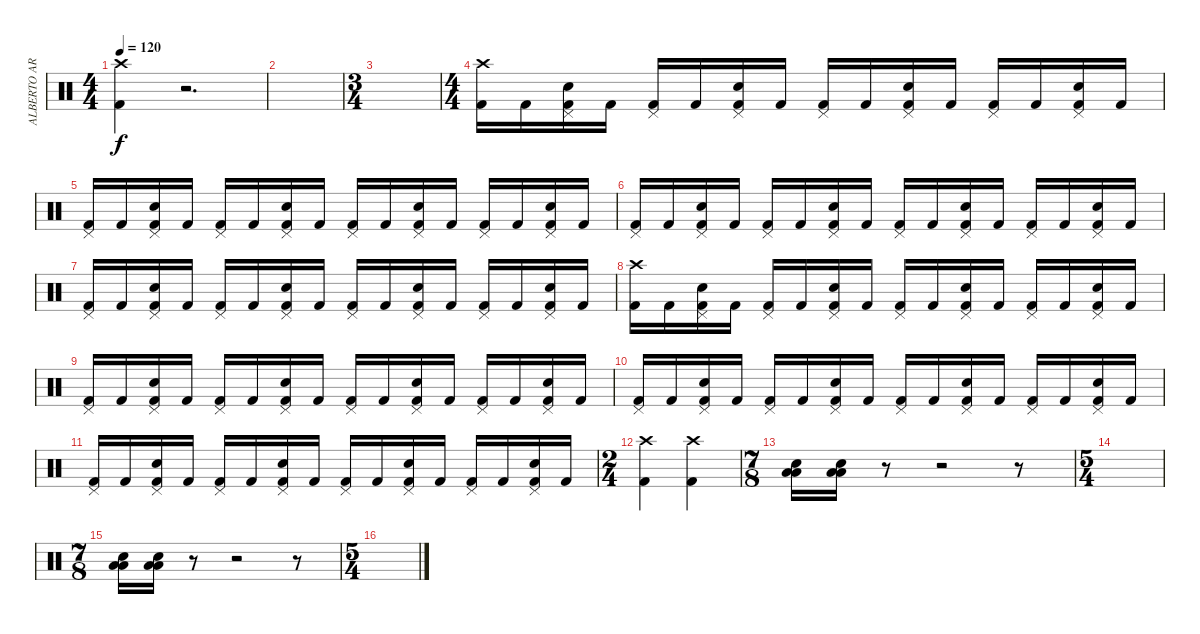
\track ("ALBERTO ARDINES" "ALBERTO AR") {instrument percussion}
\staff {score}
\articulation defaults
\ts (4 4)
\tempo 120
\clef neutral
\ks c
("Crash high (hit)" "Kick (hit) 2").4{dy f} r.2{d} |
|
\ts (3 4)
|
\ts (4 4)
("Crash high (hit)" "Kick (hit) 2").16 "Kick (hit) 2".16 ("Pedal Hi-Hat (hit)" "Electric Snare (hit)" "Kick (hit) 2").16 "Kick (hit) 2".16 ("Pedal Hi-Hat (hit)" "Kick (hit) 2").16 "Kick (hit) 2".16 ("Pedal Hi-Hat (hit)" "Electric Snare (hit)" "Kick (hit) 2").16 "Kick (hit) 2".16 ("Pedal Hi-Hat (hit)" "Kick (hit) 2").16 "Kick (hit) 2".16 ("Pedal Hi-Hat (hit)" "Electric Snare (hit)" "Kick (hit) 2").16 "Kick (hit) 2".16 ("Pedal Hi-Hat (hit)" "Kick (hit) 2").16 "Kick (hit) 2".16 ("Pedal Hi-Hat (hit)" "Electric Snare (hit)" "Kick (hit) 2").16 "Kick (hit) 2".16 |
("Pedal Hi-Hat (hit)" "Kick (hit) 2").16 "Kick (hit) 2".16 ("Pedal Hi-Hat (hit)" "Electric Snare (hit)" "Kick (hit) 2").16 "Kick (hit) 2".16 ("Pedal Hi-Hat (hit)" "Kick (hit) 2").16 "Kick (hit) 2".16 ("Pedal Hi-Hat (hit)" "Electric Snare (hit)" "Kick (hit) 2").16 "Kick (hit) 2".16 ("Pedal Hi-Hat (hit)" "Kick (hit) 2").16 "Kick (hit) 2".16 ("Pedal Hi-Hat (hit)" "Electric Snare (hit)" "Kick (hit) 2").16 "Kick (hit) 2".16 ("Pedal Hi-Hat (hit)" "Kick (hit) 2").16 "Kick (hit) 2".16 ("Pedal Hi-Hat (hit)" "Electric Snare (hit)" "Kick (hit) 2").16 "Kick (hit) 2".16 |
("Pedal Hi-Hat (hit)" "Kick (hit) 2").16 "Kick (hit) 2".16 ("Pedal Hi-Hat (hit)" "Electric Snare (hit)" "Kick (hit) 2").16 "Kick (hit) 2".16 ("Pedal Hi-Hat (hit)" "Kick (hit) 2").16 "Kick (hit) 2".16 ("Pedal Hi-Hat (hit)" "Electric Snare (hit)" "Kick (hit) 2").16 "Kick (hit) 2".16 ("Pedal Hi-Hat (hit)" "Kick (hit) 2").16 "Kick (hit) 2".16 ("Pedal Hi-Hat (hit)" "Electric Snare (hit)" "Kick (hit) 2").16 "Kick (hit) 2".16 ("Pedal Hi-Hat (hit)" "Kick (hit) 2").16 "Kick (hit) 2".16 ("Pedal Hi-Hat (hit)" "Electric Snare (hit)" "Kick (hit) 2").16 "Kick (hit) 2".16 |
("Pedal Hi-Hat (hit)" "Kick (hit) 2").16 "Kick (hit) 2".16 ("Pedal Hi-Hat (hit)" "Electric Snare (hit)" "Kick (hit) 2").16 "Kick (hit) 2".16 ("Pedal Hi-Hat (hit)" "Kick (hit) 2").16 "Kick (hit) 2".16 ("Pedal Hi-Hat (hit)" "Electric Snare (hit)" "Kick (hit) 2").16 "Kick (hit) 2".16 ("Pedal Hi-Hat (hit)" "Kick (hit) 2").16 "Kick (hit) 2".16 ("Pedal Hi-Hat (hit)" "Electric Snare (hit)" "Kick (hit) 2").16 "Kick (hit) 2".16 ("Pedal Hi-Hat (hit)" "Kick (hit) 2").16 "Kick (hit) 2".16 ("Pedal Hi-Hat (hit)" "Electric Snare (hit)" "Kick (hit) 2").16 "Kick (hit) 2".16 |
("Crash high (hit)" "Kick (hit) 2").16 "Kick (hit) 2".16 ("Pedal Hi-Hat (hit)" "Electric Snare (hit)" "Kick (hit) 2").16 "Kick (hit) 2".16 ("Pedal Hi-Hat (hit)" "Kick (hit) 2").16 "Kick (hit) 2".16 ("Pedal Hi-Hat (hit)" "Electric Snare (hit)" "Kick (hit) 2").16 "Kick (hit) 2".16 ("Pedal Hi-Hat (hit)" "Kick (hit) 2").16 "Kick (hit) 2".16 ("Pedal Hi-Hat (hit)" "Electric Snare (hit)" "Kick (hit) 2").16 "Kick (hit) 2".16 ("Pedal Hi-Hat (hit)" "Kick (hit) 2").16 "Kick (hit) 2".16 ("Pedal Hi-Hat (hit)" "Electric Snare (hit)" "Kick (hit) 2").16 "Kick (hit) 2".16 |
("Pedal Hi-Hat (hit)" "Kick (hit) 2").16 "Kick (hit) 2".16 ("Pedal Hi-Hat (hit)" "Electric Snare (hit)" "Kick (hit) 2").16 "Kick (hit) 2".16 ("Pedal Hi-Hat (hit)" "Kick (hit) 2").16 "Kick (hit) 2".16 ("Pedal Hi-Hat (hit)" "Electric Snare (hit)" "Kick (hit) 2").16 "Kick (hit) 2".16 ("Pedal Hi-Hat (hit)" "Kick (hit) 2").16 "Kick (hit) 2".16 ("Pedal Hi-Hat (hit)" "Electric Snare (hit)" "Kick (hit) 2").16 "Kick (hit) 2".16 ("Pedal Hi-Hat (hit)" "Kick (hit) 2").16 "Kick (hit) 2".16 ("Pedal Hi-Hat (hit)" "Electric Snare (hit)" "Kick (hit) 2").16 "Kick (hit) 2".16 |
("Pedal Hi-Hat (hit)" "Kick (hit) 2").16 "Kick (hit) 2".16 ("Pedal Hi-Hat (hit)" "Electric Snare (hit)" "Kick (hit) 2").16 "Kick (hit) 2".16 ("Pedal Hi-Hat (hit)" "Kick (hit) 2").16 "Kick (hit) 2".16 ("Pedal Hi-Hat (hit)" "Electric Snare (hit)" "Kick (hit) 2").16 "Kick (hit) 2".16 ("Pedal Hi-Hat (hit)" "Kick (hit) 2").16 "Kick (hit) 2".16 ("Pedal Hi-Hat (hit)" "Electric Snare (hit)" "Kick (hit) 2").16 "Kick (hit) 2".16 ("Pedal Hi-Hat (hit)" "Kick (hit) 2").16 "Kick (hit) 2".16 ("Pedal Hi-Hat (hit)" "Electric Snare (hit)" "Kick (hit) 2").16 "Kick (hit) 2".16 |
("Pedal Hi-Hat (hit)" "Kick (hit) 2").16 "Kick (hit) 2".16 ("Pedal Hi-Hat (hit)" "Electric Snare (hit)" "Kick (hit) 2").16 "Kick (hit) 2".16 ("Pedal Hi-Hat (hit)" "Kick (hit) 2").16 "Kick (hit) 2".16 ("Pedal Hi-Hat (hit)" "Electric Snare (hit)" "Kick (hit) 2").16 "Kick (hit) 2".16 ("Pedal Hi-Hat (hit)" "Kick (hit) 2").16 "Kick (hit) 2".16 ("Pedal Hi-Hat (hit)" "Electric Snare (hit)" "Kick (hit) 2").16 "Kick (hit) 2".16 ("Pedal Hi-Hat (hit)" "Kick (hit) 2").16 "Kick (hit) 2".16 ("Pedal Hi-Hat (hit)" "Electric Snare (hit)" "Kick (hit) 2").16 "Kick (hit) 2".16 |
\ts (2 4)
("Crash high (hit)" "Kick (hit) 2").4 ("Crash high (hit)" "Kick (hit) 2").4 |
\ts (7 8)
("Low Tom (hit)" "Low Floor Tom (hit)" "Electric Snare (hit)").16 ("Low Tom (hit)" "Low Floor Tom (hit)" "Electric Snare (hit)").16 r.8 r.2 r.8 |
\ts (5 4)
|
\ts (7 8)
("Low Tom (hit)" "Low Floor Tom (hit)" "Electric Snare (hit)").16 ("Low Tom (hit)" "Low Floor Tom (hit)" "Electric Snare (hit)").16 r.8 r.2 r.8 |
\ts (5 4)
